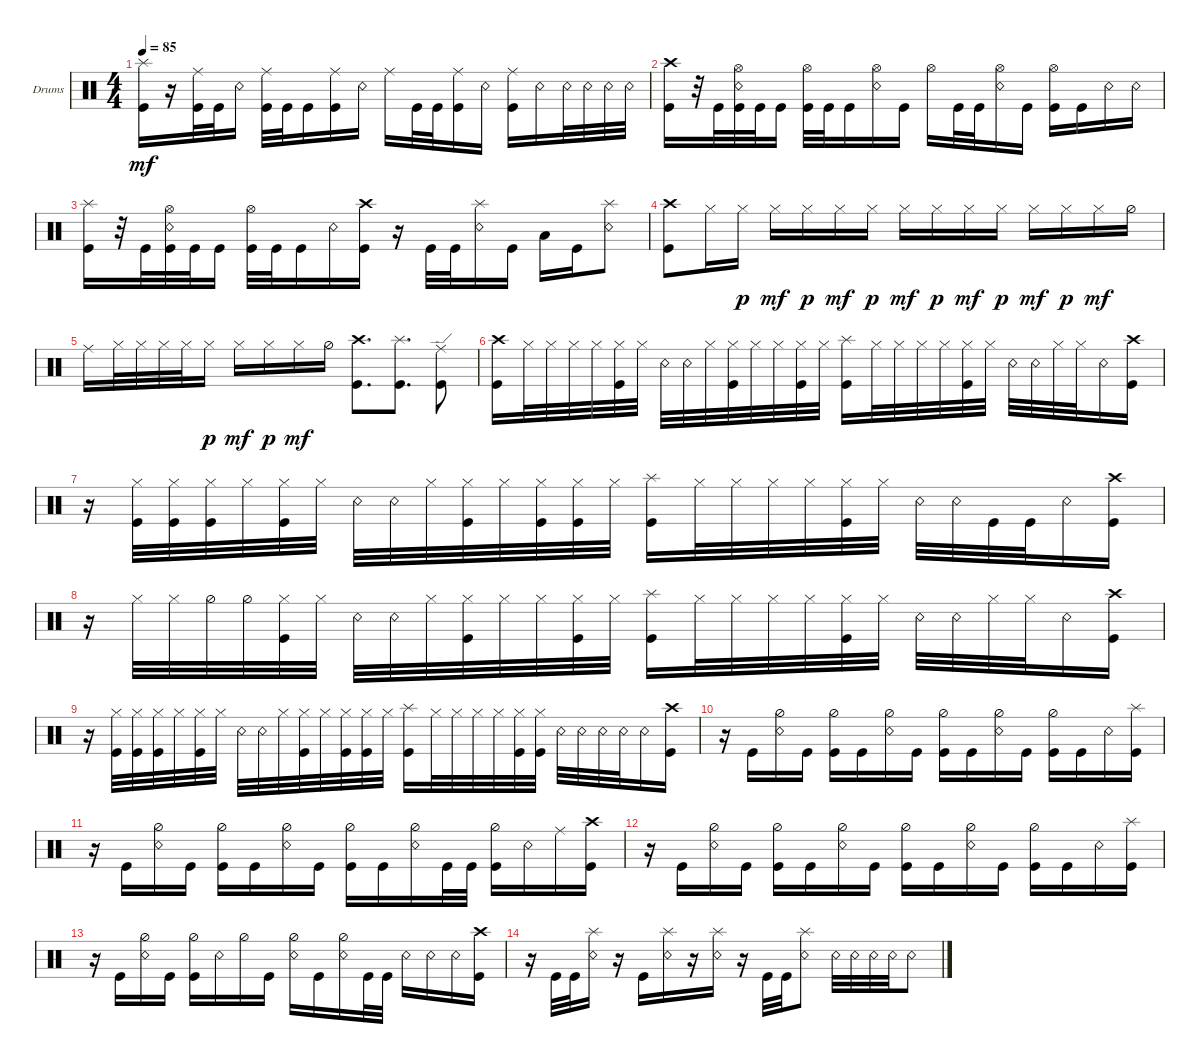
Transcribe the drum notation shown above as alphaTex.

\defaultSystemsLayout 4
\bracketExtendMode groupsimilarinstruments
\firstSystemTrackNameOrientation horizontal
\otherSystemsTrackNameOrientation horizontal
\track ("Drumkit" "Drums") {instrument percussion}
\staff {score}
\articulation defaults
\ts (4 4)
\tempo 85
\clef neutral
\ks c
("Kick (hit)" "Splash (hit)").16{dy mf} r.16 ("Kick (hit)" "Ride (middle)").32 "Kick (hit)".32 "Snare (rim shot)".16 ("Kick (hit)" "Ride (middle)").32 "Kick (hit)".32 "Kick (hit)".16 ("Kick (hit)" "Ride (middle)").16 "Snare (rim shot)".16 "Ride (middle)".16 "Kick (hit)".32 "Kick (hit)".32 ("Kick (hit)" "Ride (middle)").16 "Snare (rim shot)".16 ("Kick (hit)" "Ride (middle)").16 "Snare (rim shot)".16 "Snare (rim shot)".32 "Snare (rim shot)".32 "Snare (rim shot)".32 "Snare (rim shot)".32 |
("Kick (hit)" "Crash high (hit)").16 r.32 "Kick (hit)".32 ("Hi-Hat (open)" "Snare (rim shot)" "Kick (hit)").32 "Kick (hit)".32 "Kick (hit)".16 ("Kick (hit)" "Hi-Hat (open)").32 "Kick (hit)".32 "Kick (hit)".16 ("Hi-Hat (open)" "Snare (rim shot)").16 "Kick (hit)".16 "Hi-Hat (open)".16 "Kick (hit)".32 "Kick (hit)".32 ("Hi-Hat (open)" "Snare (rim shot)").16 "Kick (hit)".16 ("Hi-Hat (open)" "Kick (hit)").16 "Kick (hit)".16 "Snare (rim shot)".16 "Snare (rim shot)".16 |
("Kick (hit)" "Splash (hit)").16 r.32 "Kick (hit)".32 ("Kick (hit)" "Hi-Hat (open)" "Snare (rim shot)").32 "Kick (hit)".32 "Kick (hit)".16 ("Kick (hit)" "Hi-Hat (open)").32 "Kick (hit)".32 "Kick (hit)".16 "Snare (rim shot)".16 ("Kick (hit)" "Crash high (hit)").16 r.16 "Kick (hit)".32 "Kick (hit)".32 ("Snare (rim shot)" "Splash (hit)").16 "Kick (hit)".16 "Low Tom (hit)".16 "Kick (hit)".16 ("Splash (hit)" "Snare (rim shot)").8 |
("Kick (hit)" "Crash high (hit)").8 "Hi-Hat (closed)".16 "Hi-Hat (closed)".16{dy p} "Hi-Hat (closed)".16{dy mf} "Hi-Hat (closed)".16{dy p} "Hi-Hat (closed)".16{dy mf} "Hi-Hat (closed)".16{dy p} "Hi-Hat (closed)".16{dy mf} "Hi-Hat (closed)".16{dy p} "Hi-Hat (closed)".16{dy mf} "Hi-Hat (closed)".16{dy p} "Hi-Hat (closed)".16{dy mf} "Hi-Hat (closed)".16{dy p} "Hi-Hat (closed)".16{dy mf} "Hi-Hat (half)".16 |
"Ride (middle)".16 "Hi-Hat (closed)".32 "Hi-Hat (closed)".32 "Hi-Hat (closed)".32 "Hi-Hat (closed)".32 "Hi-Hat (closed)".16{dy p} "Hi-Hat (closed)".16{dy mf} "Hi-Hat (closed)".16{dy p} "Hi-Hat (closed)".16{dy mf} "Hi-Hat (half)".16 ("Kick (hit)" "Crash high (hit)").8{d} ("Kick (hit)" "Splash (hit)").8{d} ("Kick (hit)" "Ride (edge)").8 |
("Kick (hit)" "Crash high (hit)").16 "Hi-Hat (closed)".32 "Hi-Hat (closed)".32 "Hi-Hat (closed)".32 "Hi-Hat (closed)".32 ("Hi-Hat (closed)" "Kick (hit)").32 "Hi-Hat (closed)".32 "Snare (rim shot)".32 "Snare (rim shot)".32 "Hi-Hat (closed)".32 ("Hi-Hat (closed)" "Kick (hit)").32 "Hi-Hat (closed)".32 "Hi-Hat (closed)".32 ("Hi-Hat (closed)" "Kick (hit)").32 "Hi-Hat (closed)".32 ("Splash (hit)" "Kick (hit)").16 "Hi-Hat (closed)".32 "Hi-Hat (closed)".32 "Hi-Hat (closed)".32 "Hi-Hat (closed)".32 ("Hi-Hat (closed)" "Kick (hit)").32 "Hi-Hat (closed)".32 "Snare (rim shot)".32 "Snare (rim shot)".32 "Hi-Hat (closed)".32 "Hi-Hat (closed)".32 "Snare (rim shot)".16 ("Kick (hit)" "Crash high (hit)").16 |
r.16 ("Hi-Hat (closed)" "Kick (hit)").32 ("Hi-Hat (closed)" "Kick (hit)").32 ("Hi-Hat (closed)" "Kick (hit)").32 "Hi-Hat (closed)".32 ("Hi-Hat (closed)" "Kick (hit)").32 "Hi-Hat (closed)".32 "Snare (rim shot)".32 "Snare (rim shot)".32 "Hi-Hat (closed)".32 ("Hi-Hat (closed)" "Kick (hit)").32 "Hi-Hat (closed)".32 ("Hi-Hat (closed)" "Kick (hit)").32 ("Hi-Hat (closed)" "Kick (hit)").32 "Hi-Hat (closed)".32 ("Splash (hit)" "Kick (hit)").16 "Hi-Hat (closed)".32 "Hi-Hat (closed)".32 "Hi-Hat (closed)".32 "Hi-Hat (closed)".32 ("Hi-Hat (closed)" "Kick (hit)").32 "Hi-Hat (closed)".32 "Snare (rim shot)".32 "Snare (rim shot)".32 "Kick (hit)".32 "Kick (hit)".32 "Snare (rim shot)".16 ("Kick (hit)" "Crash high (hit)").16 |
r.16 "Hi-Hat (closed)".32 "Hi-Hat (closed)".32 "Hi-Hat (half)".32 "Hi-Hat (half)".32 ("Hi-Hat (closed)" "Kick (hit)").32 "Hi-Hat (closed)".32 "Snare (rim shot)".32 "Snare (rim shot)".32 "Hi-Hat (closed)".32 ("Hi-Hat (closed)" "Kick (hit)").32 "Hi-Hat (closed)".32 "Hi-Hat (closed)".32 ("Hi-Hat (closed)" "Kick (hit)").32 "Hi-Hat (closed)".32 ("Splash (hit)" "Kick (hit)").16 "Hi-Hat (closed)".32 "Hi-Hat (closed)".32 "Hi-Hat (closed)".32 "Hi-Hat (closed)".32 ("Hi-Hat (closed)" "Kick (hit)").32 "Hi-Hat (closed)".32 "Snare (rim shot)".32 "Snare (rim shot)".32 "Hi-Hat (closed)".32 "Hi-Hat (closed)".32 "Snare (rim shot)".16 ("Kick (hit)" "Crash high (hit)").16 |
r.16 ("Hi-Hat (closed)" "Kick (hit)").32 ("Hi-Hat (closed)" "Kick (hit)").32 ("Hi-Hat (closed)" "Kick (hit)").32 "Hi-Hat (closed)".32 ("Hi-Hat (closed)" "Kick (hit)").32 "Hi-Hat (closed)".32 "Snare (rim shot)".32 "Snare (rim shot)".32 "Hi-Hat (closed)".32 ("Hi-Hat (closed)" "Kick (hit)").32 "Hi-Hat (closed)".32 ("Hi-Hat (closed)" "Kick (hit)").32 ("Hi-Hat (closed)" "Kick (hit)").32 "Hi-Hat (closed)".32 ("Splash (hit)" "Kick (hit)").16 "Hi-Hat (closed)".32 "Hi-Hat (closed)".32 "Hi-Hat (closed)".32 "Hi-Hat (closed)".32 ("Hi-Hat (closed)" "Kick (hit)").32 ("Hi-Hat (closed)" "Kick (hit)").32 "Snare (rim shot)".32 "Snare (rim shot)".32 "Snare (rim shot)".32 "Snare (rim shot)".32 "Snare (rim shot)".16 ("Kick (hit)" "Crash high (hit)").16 |
r.16 "Kick (hit)".16 ("Snare (rim shot)" "Hi-Hat (half)").16 "Kick (hit)".16 ("Kick (hit)" "Hi-Hat (half)").16 "Kick (hit)".16 ("Snare (rim shot)" "Hi-Hat (half)").16 "Kick (hit)".16 ("Kick (hit)" "Hi-Hat (half)").16 "Kick (hit)".16 ("Snare (rim shot)" "Hi-Hat (half)").16 "Kick (hit)".16 ("Kick (hit)" "Hi-Hat (half)").16 "Kick (hit)".16 "Snare (rim shot)".16 ("Kick (hit)" "Splash (hit)").16 |
r.16 "Kick (hit)".16 ("Snare (rim shot)" "Hi-Hat (half)").16 "Kick (hit)".16 ("Kick (hit)" "Hi-Hat (half)").16 "Kick (hit)".16 ("Snare (rim shot)" "Hi-Hat (half)").16 "Kick (hit)".16 ("Kick (hit)" "Hi-Hat (half)").16 "Kick (hit)".16 ("Snare (rim shot)" "Hi-Hat (half)").16 "Kick (hit)".32 "Kick (hit)".32 ("Kick (hit)" "Hi-Hat (half)").16 "Snare (rim shot)".16 "Ride (middle)".16 ("Kick (hit)" "Crash high (hit)").16 |
r.16 "Kick (hit)".16 ("Snare (rim shot)" "Hi-Hat (half)").16 "Kick (hit)".16 ("Kick (hit)" "Hi-Hat (half)").16 "Kick (hit)".16 ("Snare (rim shot)" "Hi-Hat (half)").16 "Kick (hit)".16 ("Kick (hit)" "Hi-Hat (half)").16 "Kick (hit)".16 ("Snare (rim shot)" "Hi-Hat (half)").16 "Kick (hit)".16 ("Kick (hit)" "Hi-Hat (half)").16 "Kick (hit)".16 "Snare (rim shot)".16 ("Kick (hit)" "Splash (hit)").16 |
r.16 "Kick (hit)".16 ("Snare (rim shot)" "Hi-Hat (half)").16 "Kick (hit)".16 ("Kick (hit)" "Hi-Hat (half)").16 "Snare (rim shot)".16 "Hi-Hat (half)".16 "Kick (hit)".16 ("Hi-Hat (half)" "Snare (rim shot)").16 "Kick (hit)".16 ("Snare (rim shot)" "Hi-Hat (half)").16 "Kick (hit)".32 "Kick (hit)".32 "Snare (rim shot)".16 "Snare (rim shot)".16 "Snare (rim shot)".16 ("Kick (hit)" "Crash high (hit)").16 |
r.16 "Kick (hit)".32 "Kick (hit)".32 ("Splash (hit)" "Snare (rim shot)").16 r.16 "Kick (hit)".16 ("Splash (hit)" "Snare (rim shot)").16 r.16 ("Splash (hit)" "Snare (rim shot)").16 r.16 "Kick (hit)".32 "Kick (hit)".32 ("Snare (rim shot)" "Splash (hit)").8 "Snare (rim shot)".32 "Snare (rim shot)".32 "Snare (rim shot)".32 "Snare (rim shot)".32 "Snare (rim shot)".8
